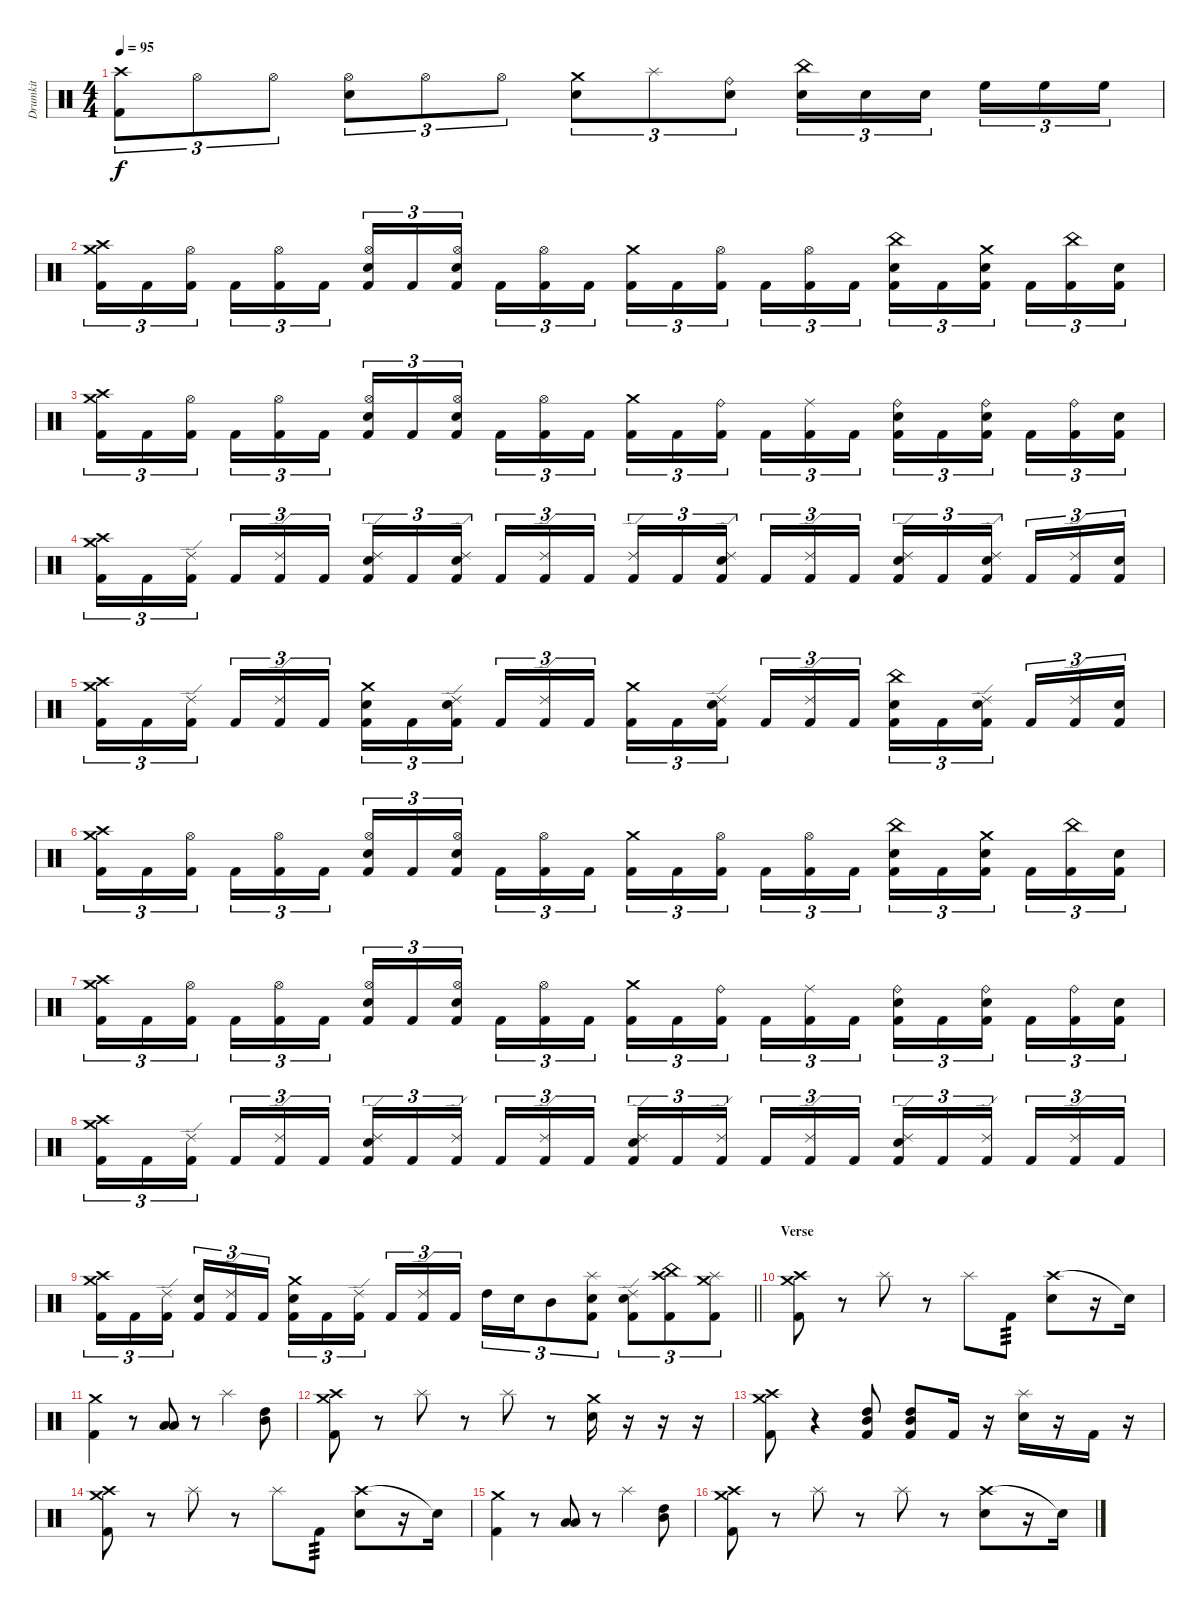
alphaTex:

\track ("Drumkit" "Drumkit") {instrument percussion}
\staff {score}
\articulation defaults
\ts (4 4)
\tempo 95
\clef neutral
\ks c
("Crash high (hit)" "Kick (hit) 2").8{tu (3 2) dy f} "Hi-Hat (open)".8{tu (3 2)} "Hi-Hat (open)".8{tu (3 2)} ("Hi-Hat (open)" "Electric Snare (hit)").8{tu (3 2)} "Hi-Hat (open)".8{tu (3 2)} "Hi-Hat (open)".8{tu (3 2)} ("Crash medium (hit)" "Electric Snare (hit)").8{tu (3 2)} "Splash (hit)".8{tu (3 2)} ("Ride (bell)" "Electric Snare (hit)").8{tu (3 2)} ("China (hit)" "Electric Snare (hit)").16{tu (3 2)} "Electric Snare (hit)".16{tu (3 2)} "Electric Snare (hit)".16{tu (3 2) beam splitsecondary} "High Floor Tom (hit)".16{tu (3 2)} "High Floor Tom (hit)".16{tu (3 2)} "High Floor Tom (hit)".16{tu (3 2)} |
("Crash high (hit)" "Crash medium (hit)" "Kick (hit) 2").16{tu (3 2)} "Kick (hit) 2".16{tu (3 2)} ("Hi-Hat (open)" "Kick (hit) 2").16{tu (3 2) beam splitsecondary} "Kick (hit) 2".16{tu (3 2)} ("Hi-Hat (open)" "Kick (hit) 2").16{tu (3 2)} "Kick (hit) 2".16{tu (3 2)} ("Hi-Hat (open)" "Electric Snare (hit)" "Kick (hit) 2").16{tu (3 2)} "Kick (hit) 2".16{tu (3 2)} ("Hi-Hat (open)" "Electric Snare (hit)" "Kick (hit) 2").16{tu (3 2) beam splitsecondary} "Kick (hit) 2".16{tu (3 2)} ("Hi-Hat (open)" "Kick (hit) 2").16{tu (3 2)} "Kick (hit) 2".16{tu (3 2)} ("Crash medium (hit)" "Kick (hit) 2").16{tu (3 2)} "Kick (hit) 2".16{tu (3 2)} ("Hi-Hat (open)" "Kick (hit) 2").16{tu (3 2) beam splitsecondary} "Kick (hit) 2".16{tu (3 2)} ("Hi-Hat (open)" "Kick (hit) 2").16{tu (3 2)} "Kick (hit) 2".16{tu (3 2)} ("China (hit)" "Electric Snare (hit)" "Kick (hit) 2").16{tu (3 2)} "Kick (hit) 2".16{tu (3 2)} ("Crash medium (hit)" "Electric Snare (hit)" "Kick (hit) 2").16{tu (3 2) beam splitsecondary} "Kick (hit) 2".16{tu (3 2)} ("China (hit)" "Kick (hit) 2").16{tu (3 2)} ("Electric Snare (hit)" "Kick (hit) 2").16{tu (3 2)} |
("Crash high (hit)" "Crash medium (hit)" "Kick (hit) 2").16{tu (3 2)} "Kick (hit) 2".16{tu (3 2)} ("Hi-Hat (open)" "Kick (hit) 2").16{tu (3 2) beam splitsecondary} "Kick (hit) 2".16{tu (3 2)} ("Hi-Hat (open)" "Kick (hit) 2").16{tu (3 2)} "Kick (hit) 2".16{tu (3 2)} ("Hi-Hat (open)" "Electric Snare (hit)" "Kick (hit) 2").16{tu (3 2)} "Kick (hit) 2".16{tu (3 2)} ("Hi-Hat (open)" "Electric Snare (hit)" "Kick (hit) 2").16{tu (3 2) beam splitsecondary} "Kick (hit) 2".16{tu (3 2)} ("Hi-Hat (open)" "Kick (hit) 2").16{tu (3 2)} "Kick (hit) 2".16{tu (3 2)} ("Crash medium (hit)" "Kick (hit) 2").16{tu (3 2)} "Kick (hit) 2".16{tu (3 2)} ("Ride (bell)" "Kick (hit) 2").16{tu (3 2) beam splitsecondary} "Kick (hit) 2".16{tu (3 2)} ("Ride (middle)" "Kick (hit) 2").16{tu (3 2)} "Kick (hit) 2".16{tu (3 2)} ("Ride (bell)" "Electric Snare (hit)" "Kick (hit) 2").16{tu (3 2)} "Kick (hit) 2".16{tu (3 2)} ("Ride (bell)" "Electric Snare (hit)" "Kick (hit) 2").16{tu (3 2) beam splitsecondary} "Kick (hit) 2".16{tu (3 2)} ("Ride (bell)" "Kick (hit) 2").16{tu (3 2)} ("Electric Snare (hit)" "Kick (hit) 2").16{tu (3 2)} |
("Crash high (hit)" "Crash medium (hit)" "Kick (hit) 2").16{tu (3 2)} "Kick (hit) 2".16{tu (3 2)} ("Ride (edge) 2" "Kick (hit) 2").16{tu (3 2) beam splitsecondary} "Kick (hit) 2".16{tu (3 2)} ("Ride (edge) 2" "Kick (hit) 2").16{tu (3 2)} "Kick (hit) 2".16{tu (3 2)} ("Ride (edge) 2" "Electric Snare (hit)" "Kick (hit) 2").16{tu (3 2)} "Kick (hit) 2".16{tu (3 2)} ("Ride (edge) 2" "Electric Snare (hit)" "Kick (hit) 2").16{tu (3 2) beam splitsecondary} "Kick (hit) 2".16{tu (3 2)} ("Ride (edge) 2" "Kick (hit) 2").16{tu (3 2)} "Kick (hit) 2".16{tu (3 2)} ("Ride (edge) 2" "Kick (hit) 2").16{tu (3 2)} "Kick (hit) 2".16{tu (3 2)} ("Ride (edge) 2" "Electric Snare (hit)" "Kick (hit) 2").16{tu (3 2) beam splitsecondary} "Kick (hit) 2".16{tu (3 2)} ("Ride (edge) 2" "Kick (hit) 2").16{tu (3 2)} "Kick (hit) 2".16{tu (3 2)} ("Ride (edge) 2" "Electric Snare (hit)" "Kick (hit) 2").16{tu (3 2)} "Kick (hit) 2".16{tu (3 2)} ("Ride (edge) 2" "Electric Snare (hit)" "Kick (hit) 2").16{tu (3 2) beam splitsecondary} "Kick (hit) 2".16{tu (3 2)} ("Ride (edge) 2" "Kick (hit) 2").16{tu (3 2)} ("Electric Snare (hit)" "Kick (hit) 2").16{tu (3 2)} |
("Crash high (hit)" "Crash medium (hit)" "Kick (hit) 2").16{tu (3 2)} "Kick (hit) 2".16{tu (3 2)} ("Ride (edge) 2" "Kick (hit) 2").16{tu (3 2) beam splitsecondary} "Kick (hit) 2".16{tu (3 2)} ("Ride (edge) 2" "Kick (hit) 2").16{tu (3 2)} "Kick (hit) 2".16{tu (3 2)} ("Crash medium (hit)" "Electric Snare (hit)" "Kick (hit) 2").16{tu (3 2)} "Kick (hit) 2".16{tu (3 2)} ("Ride (edge) 2" "Electric Snare (hit)" "Kick (hit) 2").16{tu (3 2) beam splitsecondary} "Kick (hit) 2".16{tu (3 2)} ("Ride (edge) 2" "Kick (hit) 2").16{tu (3 2)} "Kick (hit) 2".16{tu (3 2)} ("Crash medium (hit)" "Kick (hit) 2").16{tu (3 2)} "Kick (hit) 2".16{tu (3 2)} ("Ride (edge) 2" "Electric Snare (hit)" "Kick (hit) 2").16{tu (3 2) beam splitsecondary} "Kick (hit) 2".16{tu (3 2)} ("Ride (edge) 2" "Kick (hit) 2").16{tu (3 2)} "Kick (hit) 2".16{tu (3 2)} ("China (hit)" "Electric Snare (hit)" "Kick (hit) 2").16{tu (3 2)} "Kick (hit) 2".16{tu (3 2)} ("Ride (edge) 2" "Electric Snare (hit)" "Kick (hit) 2").16{tu (3 2) beam splitsecondary} "Kick (hit) 2".16{tu (3 2)} ("Ride (edge) 2" "Kick (hit) 2").16{tu (3 2)} ("Electric Snare (hit)" "Kick (hit) 2").16{tu (3 2)} |
("Crash high (hit)" "Crash medium (hit)" "Kick (hit) 2").16{tu (3 2)} "Kick (hit) 2".16{tu (3 2)} ("Hi-Hat (open)" "Kick (hit) 2").16{tu (3 2) beam splitsecondary} "Kick (hit) 2".16{tu (3 2)} ("Hi-Hat (open)" "Kick (hit) 2").16{tu (3 2)} "Kick (hit) 2".16{tu (3 2)} ("Hi-Hat (open)" "Electric Snare (hit)" "Kick (hit) 2").16{tu (3 2)} "Kick (hit) 2".16{tu (3 2)} ("Hi-Hat (open)" "Electric Snare (hit)" "Kick (hit) 2").16{tu (3 2) beam splitsecondary} "Kick (hit) 2".16{tu (3 2)} ("Hi-Hat (open)" "Kick (hit) 2").16{tu (3 2)} "Kick (hit) 2".16{tu (3 2)} ("Crash medium (hit)" "Kick (hit) 2").16{tu (3 2)} "Kick (hit) 2".16{tu (3 2)} ("Hi-Hat (open)" "Kick (hit) 2").16{tu (3 2) beam splitsecondary} "Kick (hit) 2".16{tu (3 2)} ("Hi-Hat (open)" "Kick (hit) 2").16{tu (3 2)} "Kick (hit) 2".16{tu (3 2)} ("China (hit)" "Electric Snare (hit)" "Kick (hit) 2").16{tu (3 2)} "Kick (hit) 2".16{tu (3 2)} ("Crash medium (hit)" "Electric Snare (hit)" "Kick (hit) 2").16{tu (3 2) beam splitsecondary} "Kick (hit) 2".16{tu (3 2)} ("China (hit)" "Kick (hit) 2").16{tu (3 2)} ("Electric Snare (hit)" "Kick (hit) 2").16{tu (3 2)} |
("Crash high (hit)" "Crash medium (hit)" "Kick (hit) 2").16{tu (3 2)} "Kick (hit) 2".16{tu (3 2)} ("Hi-Hat (open)" "Kick (hit) 2").16{tu (3 2) beam splitsecondary} "Kick (hit) 2".16{tu (3 2)} ("Hi-Hat (open)" "Kick (hit) 2").16{tu (3 2)} "Kick (hit) 2".16{tu (3 2)} ("Hi-Hat (open)" "Electric Snare (hit)" "Kick (hit) 2").16{tu (3 2)} "Kick (hit) 2".16{tu (3 2)} ("Hi-Hat (open)" "Electric Snare (hit)" "Kick (hit) 2").16{tu (3 2) beam splitsecondary} "Kick (hit) 2".16{tu (3 2)} ("Hi-Hat (open)" "Kick (hit) 2").16{tu (3 2)} "Kick (hit) 2".16{tu (3 2)} ("Crash medium (hit)" "Kick (hit) 2").16{tu (3 2)} "Kick (hit) 2".16{tu (3 2)} ("Ride (bell)" "Kick (hit) 2").16{tu (3 2) beam splitsecondary} "Kick (hit) 2".16{tu (3 2)} ("Ride (middle)" "Kick (hit) 2").16{tu (3 2)} "Kick (hit) 2".16{tu (3 2)} ("Ride (bell)" "Electric Snare (hit)" "Kick (hit) 2").16{tu (3 2)} "Kick (hit) 2".16{tu (3 2)} ("Ride (bell)" "Electric Snare (hit)" "Kick (hit) 2").16{tu (3 2) beam splitsecondary} "Kick (hit) 2".16{tu (3 2)} ("Ride (bell)" "Kick (hit) 2").16{tu (3 2)} ("Electric Snare (hit)" "Kick (hit) 2").16{tu (3 2)} |
("Crash high (hit)" "Crash medium (hit)" "Kick (hit) 2").16{tu (3 2)} "Kick (hit) 2".16{tu (3 2)} ("Ride (edge) 2" "Kick (hit) 2").16{tu (3 2) beam splitsecondary} "Kick (hit) 2".16{tu (3 2)} ("Ride (edge) 2" "Kick (hit) 2").16{tu (3 2)} "Kick (hit) 2".16{tu (3 2)} ("Ride (edge) 2" "Electric Snare (hit)" "Kick (hit) 2").16{tu (3 2)} "Kick (hit) 2".16{tu (3 2)} ("Ride (edge) 2" "Kick (hit) 2").16{tu (3 2) beam splitsecondary} "Kick (hit) 2".16{tu (3 2)} ("Ride (edge) 2" "Kick (hit) 2").16{tu (3 2)} "Kick (hit) 2".16{tu (3 2)} ("Ride (edge) 2" "Electric Snare (hit)" "Kick (hit) 2").16{tu (3 2)} "Kick (hit) 2".16{tu (3 2)} ("Ride (edge) 2" "Kick (hit) 2").16{tu (3 2) beam splitsecondary} "Kick (hit) 2".16{tu (3 2)} ("Ride (edge) 2" "Kick (hit) 2").16{tu (3 2)} "Kick (hit) 2".16{tu (3 2)} ("Ride (edge) 2" "Electric Snare (hit)" "Kick (hit) 2").16{tu (3 2)} "Kick (hit) 2".16{tu (3 2)} ("Ride (edge) 2" "Kick (hit) 2").16{tu (3 2) beam splitsecondary} "Kick (hit) 2".16{tu (3 2)} ("Ride (edge) 2" "Kick (hit) 2").16{tu (3 2)} "Kick (hit) 2".16{tu (3 2)} |
\barLineRight lightlight
("Crash high (hit)" "Crash medium (hit)" "Kick (hit) 2").16{tu (3 2)} "Kick (hit) 2".16{tu (3 2)} ("Ride (edge) 2" "Kick (hit) 2").16{tu (3 2) beam splitsecondary} ("Electric Snare (hit)" "Kick (hit) 2").16{tu (3 2)} ("Ride (edge) 2" "Kick (hit) 2").16{tu (3 2)} "Kick (hit) 2".16{tu (3 2)} ("Crash medium (hit)" "Electric Snare (hit)" "Kick (hit) 2").16{tu (3 2)} "Kick (hit) 2".16{tu (3 2)} ("Ride (edge) 2" "Kick (hit) 2").16{tu (3 2) beam splitsecondary} "Kick (hit) 2".16{tu (3 2)} ("Ride (edge) 2" "Kick (hit) 2").16{tu (3 2)} "Kick (hit) 2".16{tu (3 2)} "High Tom (hit)".16{tu (3 2)} "Electric Snare (hit)".16{tu (3 2)} "Mid Tom (hit)".8{tu (3 2)} ("Splash (hit)" "Electric Snare (hit)" "Kick (hit) 2").8{tu (3 2)} ("Ride (edge) 2" "Electric Snare (hit)" "Kick (hit) 2").8{tu (3 2)} ("China (hit)" "Crash high (hit)" "Kick (hit) 2").8{tu (3 2)} ("Crash medium (hit)" "Splash (hit)" "Kick (hit) 2").8{tu (3 2)} |
\section ("" "Verse")
("Crash high (hit)" "Crash medium (hit)" "Kick (hit) 2").8 r.8 "Splash (hit)".8 r.8 "Splash (hit)".8 "Kick (hit) 2".8{tp 3} ("Crash high (hit)" "Electric Snare (hit)").8 r.16 "Snare (hit)"{t}.16 |
("Crash medium (hit)" "Kick (hit) 2").4 r.8 ("Low Tom (hit)" "Low Floor Tom (hit)").8 r.8 "Splash (hit)".4 ("Mid Tom (hit)" "High Tom (hit)").8 |
("Crash high (hit)" "Crash medium (hit)" "Kick (hit) 2").8 r.8 "Splash (hit)".8 r.8 "Splash (hit)".8 r.8 ("Crash medium (hit)" "Electric Snare (hit)").16 r.16 r.16 r.16 |
("Crash medium (hit)" "Crash high (hit)" "Kick (hit) 2").8 r.4 ("High Tom (hit)" "Mid Tom (hit)" "Kick (hit) 2").8 ("High Tom (hit)" "Mid Tom (hit)" "Kick (hit) 2").8 "Kick (hit) 2".16 r.16 ("Splash (hit)" "Electric Snare (hit)").16 r.16 "Kick (hit) 2".16 r.16 |
("Crash high (hit)" "Crash medium (hit)" "Kick (hit) 2").8 r.8 "Splash (hit)".8 r.8 "Splash (hit)".8 "Kick (hit) 2".8{tp 3} ("Crash high (hit)" "Electric Snare (hit)").8 r.16 "Snare (hit)"{t}.16 |
("Crash medium (hit)" "Kick (hit) 2").4 r.8 ("Low Tom (hit)" "Low Floor Tom (hit)").8 r.8 "Splash (hit)".4 ("Mid Tom (hit)" "High Tom (hit)").8 |
("Crash high (hit)" "Crash medium (hit)" "Kick (hit) 2").8 r.8 "Splash (hit)".8 r.8 "Splash (hit)".8 r.8 ("Crash high (hit)" "Electric Snare (hit)").8 r.16 "Snare (hit)"{t}.16
